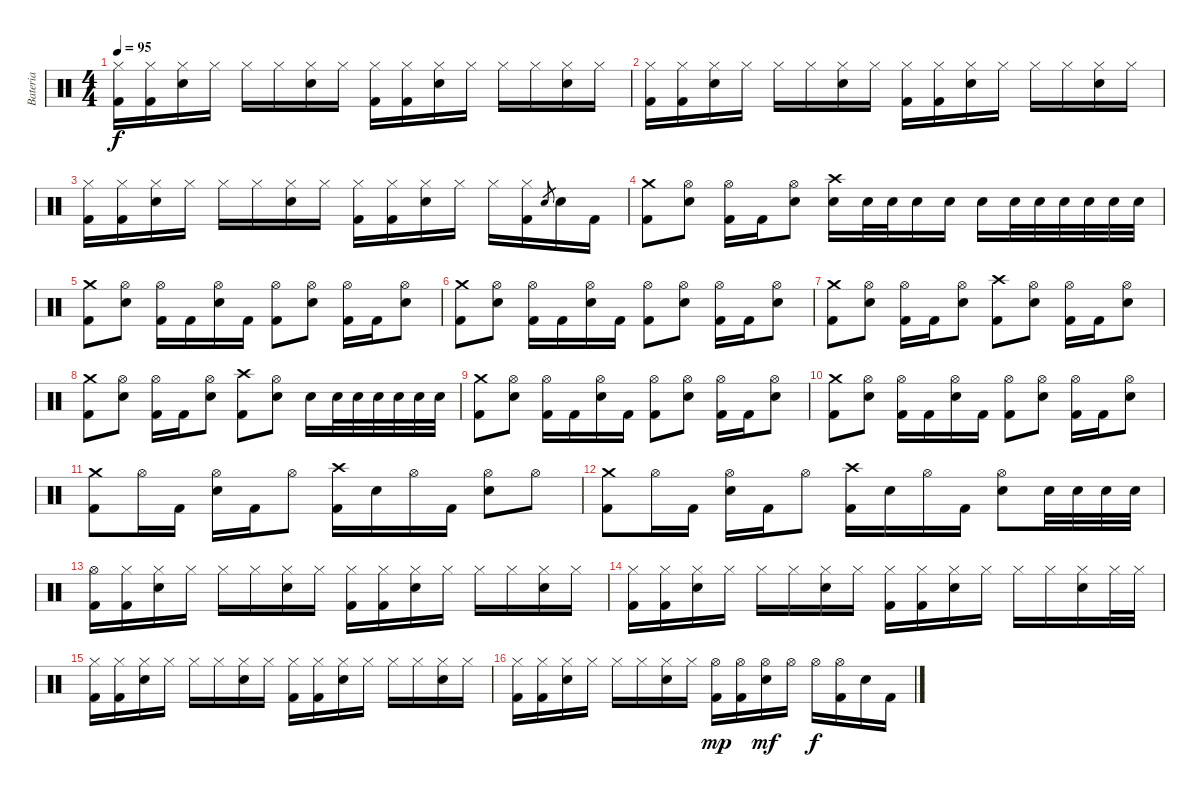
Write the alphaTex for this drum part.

\track ("Bateria" "Bateria") {instrument percussion}
\staff {score}
\articulation defaults
\ts (4 4)
\tempo 95
\clef neutral
\ks c
("Hi-Hat (closed)" "Kick (hit) 2").16{dy f} ("Hi-Hat (closed)" "Kick (hit) 2").16 ("Hi-Hat (closed)" "Electric Snare (hit)").16 "Hi-Hat (closed)".16 "Hi-Hat (closed)".16 "Hi-Hat (closed)".16 ("Hi-Hat (closed)" "Electric Snare (hit)").16 "Hi-Hat (closed)".16 ("Hi-Hat (closed)" "Kick (hit) 2").16 ("Hi-Hat (closed)" "Kick (hit) 2").16 ("Hi-Hat (closed)" "Electric Snare (hit)").16 "Hi-Hat (closed)".16 "Hi-Hat (closed)".16 "Hi-Hat (closed)".16 ("Hi-Hat (closed)" "Electric Snare (hit)").16 "Hi-Hat (closed)".16 |
("Hi-Hat (closed)" "Kick (hit) 2").16 ("Hi-Hat (closed)" "Kick (hit) 2").16 ("Hi-Hat (closed)" "Electric Snare (hit)").16 "Hi-Hat (closed)".16 "Hi-Hat (closed)".16 "Hi-Hat (closed)".16 ("Hi-Hat (closed)" "Electric Snare (hit)").16 "Hi-Hat (closed)".16 ("Hi-Hat (closed)" "Kick (hit) 2").16 ("Hi-Hat (closed)" "Kick (hit) 2").16 ("Hi-Hat (closed)" "Electric Snare (hit)").16 "Hi-Hat (closed)".16 "Hi-Hat (closed)".16 "Hi-Hat (closed)".16 ("Hi-Hat (closed)" "Electric Snare (hit)").16 "Hi-Hat (closed)".16 |
("Hi-Hat (closed)" "Kick (hit) 2").16 ("Hi-Hat (closed)" "Kick (hit) 2").16 ("Hi-Hat (closed)" "Electric Snare (hit)").16 "Hi-Hat (closed)".16 "Hi-Hat (closed)".16 "Hi-Hat (closed)".16 ("Hi-Hat (closed)" "Electric Snare (hit)").16 "Hi-Hat (closed)".16 ("Hi-Hat (closed)" "Kick (hit) 2").16 ("Hi-Hat (closed)" "Kick (hit) 2").16 ("Hi-Hat (closed)" "Electric Snare (hit)").16 "Hi-Hat (closed)".16 "Hi-Hat (closed)".16 ("Hi-Hat (closed)" "Kick (hit) 2").16 "Electric Snare (hit)".8{gr} "Electric Snare (hit)".16 "Kick (hit) 2".16 |
("Crash medium (hit)" "Kick (hit) 2").8 ("Hi-Hat (open)" "Electric Snare (hit)").8 ("Hi-Hat (open)" "Kick (hit) 2").16 "Kick (hit) 2".16 ("Hi-Hat (open)" "Electric Snare (hit)").8 ("Crash high (hit)" "Electric Snare (hit)").16 "Electric Snare (hit)".32 "Electric Snare (hit)".32 "Electric Snare (hit)".16 "Electric Snare (hit)".16 "Electric Snare (hit)".16 "Electric Snare (hit)".32 "Electric Snare (hit)".32 "Electric Snare (hit)".32 "Electric Snare (hit)".32 "Electric Snare (hit)".32 "Electric Snare (hit)".32 |
("Crash medium (hit)" "Kick (hit) 2").8 ("Hi-Hat (open)" "Electric Snare (hit)").8 ("Hi-Hat (open)" "Kick (hit) 2").16 "Kick (hit) 2".16 ("Hi-Hat (open)" "Electric Snare (hit)").16 "Kick (hit) 2".16 ("Hi-Hat (open)" "Kick (hit) 2").8 ("Hi-Hat (open)" "Electric Snare (hit)").8 ("Hi-Hat (open)" "Kick (hit) 2").16 "Kick (hit) 2".16 ("Hi-Hat (open)" "Electric Snare (hit)").8 |
("Crash medium (hit)" "Kick (hit) 2").8 ("Hi-Hat (open)" "Electric Snare (hit)").8 ("Hi-Hat (open)" "Kick (hit) 2").16 "Kick (hit) 2".16 ("Hi-Hat (open)" "Electric Snare (hit)").16 "Kick (hit) 2".16 ("Hi-Hat (open)" "Kick (hit) 2").8 ("Hi-Hat (open)" "Electric Snare (hit)").8 ("Hi-Hat (open)" "Kick (hit) 2").16 "Kick (hit) 2".16 ("Hi-Hat (open)" "Electric Snare (hit)").8 |
("Crash medium (hit)" "Kick (hit) 2").8 ("Hi-Hat (open)" "Electric Snare (hit)").8 ("Hi-Hat (open)" "Kick (hit) 2").16 "Kick (hit) 2".16 ("Hi-Hat (open)" "Electric Snare (hit)").8 ("Crash high (hit)" "Kick (hit) 2").8 ("Hi-Hat (open)" "Electric Snare (hit)").8 ("Hi-Hat (open)" "Kick (hit) 2").16 "Kick (hit) 2".16 ("Hi-Hat (open)" "Electric Snare (hit)").8 |
("Crash medium (hit)" "Kick (hit) 2").8 ("Hi-Hat (open)" "Electric Snare (hit)").8 ("Hi-Hat (open)" "Kick (hit) 2").16 "Kick (hit) 2".16 ("Hi-Hat (open)" "Electric Snare (hit)").8 ("Crash high (hit)" "Kick (hit) 2").8 ("Hi-Hat (open)" "Electric Snare (hit)").8 "Electric Snare (hit)".16 "Electric Snare (hit)".32 "Electric Snare (hit)".32 "Electric Snare (hit)".32 "Electric Snare (hit)".32 "Electric Snare (hit)".32 "Electric Snare (hit)".32 |
("Crash medium (hit)" "Kick (hit) 2").8 ("Hi-Hat (open)" "Electric Snare (hit)").8 ("Hi-Hat (open)" "Kick (hit) 2").16 "Kick (hit) 2".16 ("Hi-Hat (open)" "Electric Snare (hit)").16 "Kick (hit) 2".16 ("Hi-Hat (open)" "Kick (hit) 2").8 ("Hi-Hat (open)" "Electric Snare (hit)").8 ("Hi-Hat (open)" "Kick (hit) 2").16 "Kick (hit) 2".16 ("Hi-Hat (open)" "Electric Snare (hit)").8 |
("Crash medium (hit)" "Kick (hit) 2").8 ("Hi-Hat (open)" "Electric Snare (hit)").8 ("Hi-Hat (open)" "Kick (hit) 2").16 "Kick (hit) 2".16 ("Hi-Hat (open)" "Electric Snare (hit)").16 "Kick (hit) 2".16 ("Hi-Hat (open)" "Kick (hit) 2").8 ("Hi-Hat (open)" "Electric Snare (hit)").8 ("Hi-Hat (open)" "Kick (hit) 2").16 "Kick (hit) 2".16 ("Hi-Hat (open)" "Electric Snare (hit)").8 |
("Crash medium (hit)" "Kick (hit) 2").8 "Hi-Hat (open)".16 "Kick (hit) 2".16 ("Hi-Hat (open)" "Electric Snare (hit)").16 "Kick (hit) 2".16 "Hi-Hat (open)".8 ("Crash high (hit)" "Kick (hit) 2").16 "Electric Snare (hit)".16 "Hi-Hat (open)".16 "Kick (hit) 2".16 ("Hi-Hat (open)" "Electric Snare (hit)").8 "Hi-Hat (open)".8 |
("Crash medium (hit)" "Kick (hit) 2").8 "Hi-Hat (open)".16 "Kick (hit) 2".16 ("Hi-Hat (open)" "Electric Snare (hit)").16 "Kick (hit) 2".16 "Hi-Hat (open)".8 ("Crash high (hit)" "Kick (hit) 2").16 "Electric Snare (hit)".16 "Hi-Hat (open)".16 "Kick (hit) 2".16 ("Hi-Hat (open)" "Electric Snare (hit)").8 "Electric Snare (hit)".32 "Electric Snare (hit)".32 "Electric Snare (hit)".32 "Electric Snare (hit)".32 |
("Hi-Hat (open)" "Kick (hit) 2").16 ("Hi-Hat (closed)" "Kick (hit) 2").16 ("Hi-Hat (closed)" "Electric Snare (hit)").16 "Hi-Hat (closed)".16 "Hi-Hat (closed)".16 "Hi-Hat (closed)".16 ("Hi-Hat (closed)" "Electric Snare (hit)").16 "Hi-Hat (closed)".16 ("Hi-Hat (closed)" "Kick (hit) 2").16 ("Hi-Hat (closed)" "Kick (hit) 2").16 ("Hi-Hat (closed)" "Electric Snare (hit)").16 "Hi-Hat (closed)".16 "Hi-Hat (closed)".16 "Hi-Hat (closed)".16 ("Hi-Hat (closed)" "Electric Snare (hit)").16 "Hi-Hat (closed)".16 |
("Hi-Hat (closed)" "Kick (hit) 2").16 ("Hi-Hat (closed)" "Kick (hit) 2").16 ("Hi-Hat (closed)" "Electric Snare (hit)").16 "Hi-Hat (closed)".16 "Hi-Hat (closed)".16 "Hi-Hat (closed)".16 ("Hi-Hat (closed)" "Electric Snare (hit)").16 "Hi-Hat (closed)".16 ("Hi-Hat (closed)" "Kick (hit) 2").16 ("Hi-Hat (closed)" "Kick (hit) 2").16 ("Hi-Hat (closed)" "Electric Snare (hit)").16 "Hi-Hat (closed)".16 "Hi-Hat (closed)".16 "Hi-Hat (closed)".16 ("Hi-Hat (closed)" "Electric Snare (hit)").16 "Hi-Hat (closed)".32 "Hi-Hat (closed)".32 |
("Hi-Hat (closed)" "Kick (hit) 2").16 ("Hi-Hat (closed)" "Kick (hit) 2").16 ("Hi-Hat (closed)" "Electric Snare (hit)").16 "Hi-Hat (closed)".16 "Hi-Hat (closed)".16 "Hi-Hat (closed)".16 ("Hi-Hat (closed)" "Electric Snare (hit)").16 "Hi-Hat (closed)".16 ("Hi-Hat (closed)" "Kick (hit) 2").16 ("Hi-Hat (closed)" "Kick (hit) 2").16 ("Hi-Hat (closed)" "Electric Snare (hit)").16 "Hi-Hat (closed)".16 "Hi-Hat (closed)".16 "Hi-Hat (closed)".16 ("Hi-Hat (closed)" "Electric Snare (hit)").16 "Hi-Hat (closed)".16 |
("Hi-Hat (closed)" "Kick (hit) 2").16 ("Hi-Hat (closed)" "Kick (hit) 2").16 ("Hi-Hat (closed)" "Electric Snare (hit)").16 "Hi-Hat (closed)".16 "Hi-Hat (closed)".16 "Hi-Hat (closed)".16 ("Hi-Hat (closed)" "Electric Snare (hit)").16 "Hi-Hat (closed)".16 ("Hi-Hat (open)" "Kick (hit) 2").16{dy mp} ("Hi-Hat (open)" "Kick (hit) 2").16 ("Hi-Hat (open)" "Electric Snare (hit)").16{dy mf} "Hi-Hat (open)".16 "Hi-Hat (open)".16{dy f} ("Hi-Hat (open)" "Kick (hit) 2").16 "Electric Snare (hit)".16 "Kick (hit) 2".16
